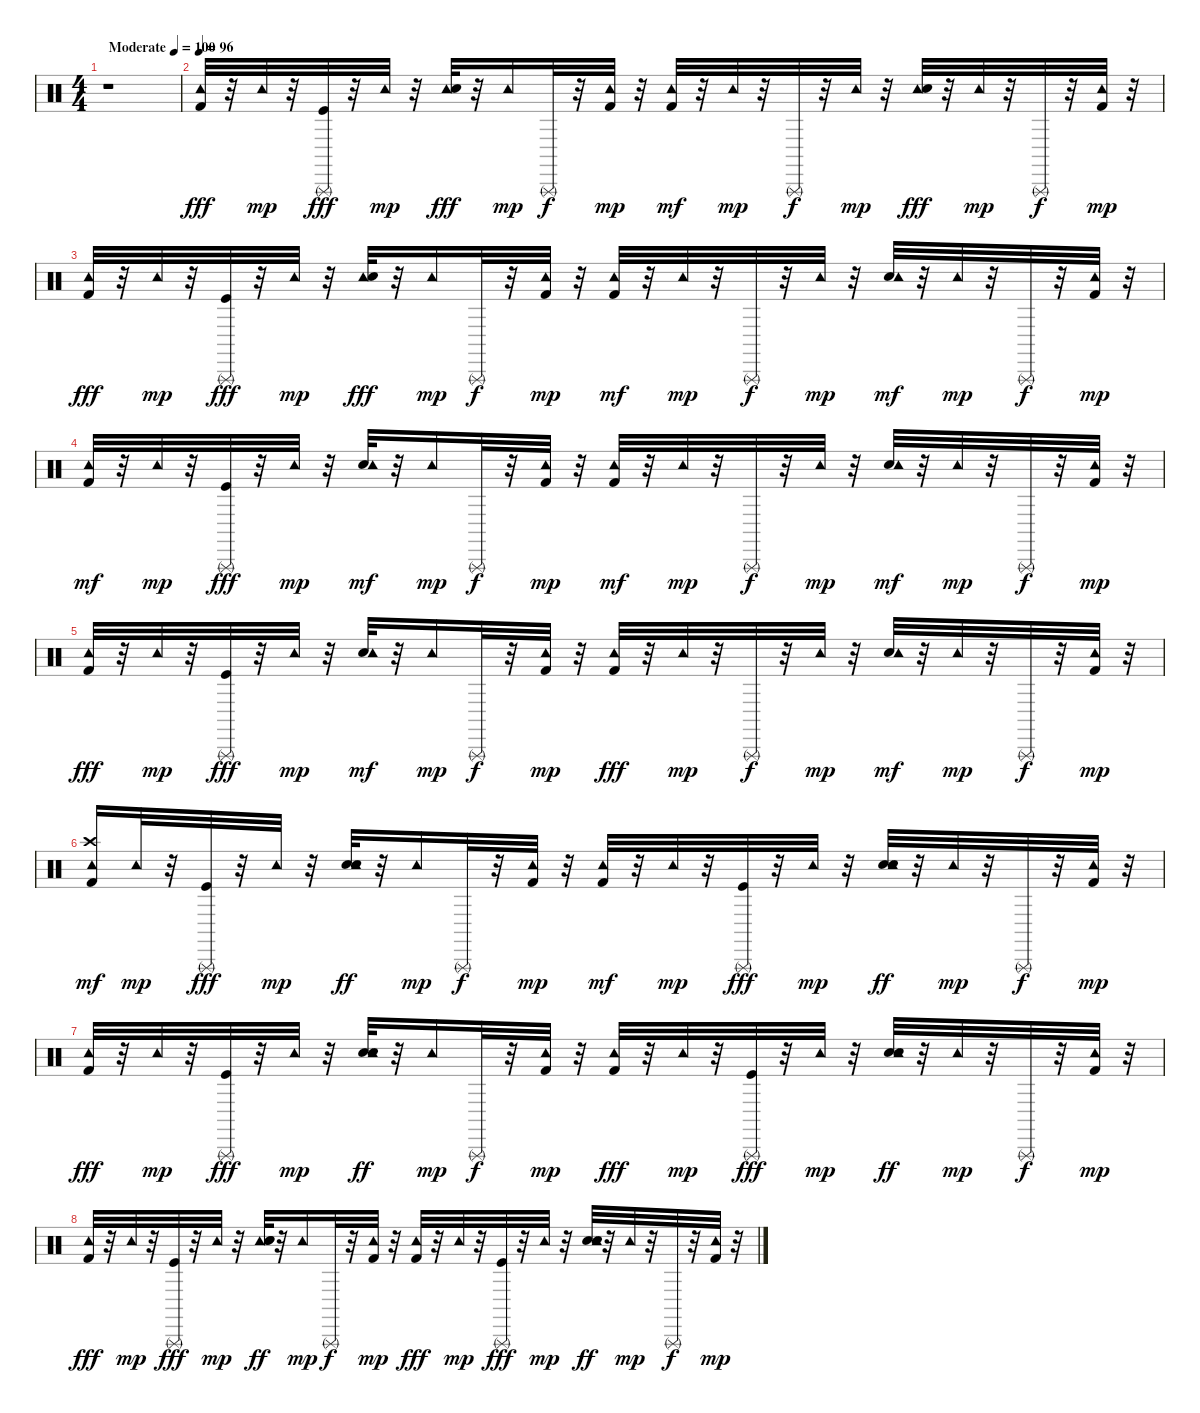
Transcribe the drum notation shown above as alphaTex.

\track "" {instrument percussion}
\staff {score}
\articulation defaults
\ts (4 4)
\tempo (100 "Moderate")
\clef neutral
\ks c
r.1{dy fff} |
\tempo 96
("Tambourine (hit)" "Kick (hit) 2").32{volume 14 balance 8} r.32 "Tambourine (hit)".32{dy mp} r.32 ("Triangle (rnute)" "Kick (hit)").32{dy fff} r.32 "Tambourine (hit)".32{dy mp} r.32 ("Tambourine (hit)" "Hand Clap (hit)").32{dy fff} r.32 "Tambourine (hit)".16{dy mp} "Triangle (rnute)".32{dy f} r.32 ("Tambourine (hit)" "Kick (hit) 2").32{dy mp} r.32 ("Kick (hit) 2" "Tambourine (hit)").32{dy mf} r.32 "Tambourine (hit)".32{dy mp} r.32 "Triangle (rnute)".32{dy f} r.32 "Tambourine (hit)".32{dy mp} r.32 ("Tambourine (hit)" "Hand Clap (hit)").32{dy fff} r.32 "Tambourine (hit)".32{dy mp} r.32 "Triangle (rnute)".32{dy f} r.32 ("Tambourine (hit)" "Kick (hit) 2").32{dy mp} r.32 |
("Tambourine (hit)" "Kick (hit) 2").32{dy fff} r.32 "Tambourine (hit)".32{dy mp} r.32 ("Triangle (rnute)" "Kick (hit)").32{dy fff} r.32 "Tambourine (hit)".32{dy mp} r.32 ("Tambourine (hit)" "Hand Clap (hit)").32{dy fff} r.32 "Tambourine (hit)".16{dy mp} "Triangle (rnute)".32{dy f} r.32 ("Kick (hit) 2" "Tambourine (hit)").32{dy mp} r.32 ("Kick (hit) 2" "Tambourine (hit)").32{dy mf} r.32 "Tambourine (hit)".32{dy mp} r.32 "Triangle (rnute)".32{dy f} r.32 "Tambourine (hit)".32{dy mp} r.32 ("Hand Clap (hit)" "Tambourine (hit)").32{dy mf} r.32 "Tambourine (hit)".32{dy mp} r.32 "Triangle (rnute)".32{dy f} r.32 ("Kick (hit) 2" "Tambourine (hit)").32{dy mp} r.32 |
("Kick (hit) 2" "Tambourine (hit)").32{dy mf} r.32 "Tambourine (hit)".32{dy mp} r.32 ("Kick (hit)" "Triangle (rnute)").32{dy fff} r.32 "Tambourine (hit)".32{dy mp} r.32 ("Hand Clap (hit)" "Tambourine (hit)").32{dy mf} r.32 "Tambourine (hit)".16{dy mp} "Triangle (rnute)".32{dy f} r.32 ("Tambourine (hit)" "Kick (hit) 2").32{dy mp} r.32 ("Kick (hit) 2" "Tambourine (hit)").32{dy mf} r.32 "Tambourine (hit)".32{dy mp} r.32 "Triangle (rnute)".32{dy f} r.32 "Tambourine (hit)".32{dy mp} r.32 ("Hand Clap (hit)" "Tambourine (hit)").32{dy mf} r.32 "Tambourine (hit)".32{dy mp} r.32 "Triangle (rnute)".32{dy f} r.32 ("Tambourine (hit)" "Kick (hit) 2").32{dy mp} r.32 |
("Tambourine (hit)" "Kick (hit) 2").32{dy fff} r.32 "Tambourine (hit)".32{dy mp} r.32 ("Kick (hit)" "Triangle (rnute)").32{dy fff} r.32 "Tambourine (hit)".32{dy mp} r.32 ("Hand Clap (hit)" "Tambourine (hit)").32{dy mf} r.32 "Tambourine (hit)".16{dy mp} "Triangle (rnute)".32{dy f} r.32 ("Tambourine (hit)" "Kick (hit) 2").32{dy mp} r.32 ("Tambourine (hit)" "Kick (hit) 2").32{dy fff} r.32 "Tambourine (hit)".32{dy mp} r.32 "Triangle (rnute)".32{dy f} r.32 "Tambourine (hit)".32{dy mp} r.32 ("Hand Clap (hit)" "Tambourine (hit)").32{dy mf} r.32 "Tambourine (hit)".32{dy mp} r.32 "Triangle (rnute)".32{dy f} r.32 ("Tambourine (hit)" "Kick (hit) 2").32{dy mp} r.32 |
("Tambourine (hit)" "Kick (hit) 2" "Crash high (hit)").16{dy mf} "Tambourine (hit)".32{dy mp} r.32 ("Kick (hit)" "Triangle (rnute)").32{dy fff} r.32 "Tambourine (hit)".32{dy mp} r.32 ("Electric Snare (hit)" "Tambourine (hit)" "Hand Clap (hit)").32{dy ff} r.32 "Tambourine (hit)".16{dy mp} "Triangle (rnute)".32{dy f} r.32 ("Tambourine (hit)" "Kick (hit) 2").32{dy mp} r.32 ("Kick (hit) 2" "Tambourine (hit)").32{dy mf} r.32 "Tambourine (hit)".32{dy mp} r.32 ("Triangle (rnute)" "Kick (hit)").32{dy fff} r.32 "Tambourine (hit)".32{dy mp} r.32 ("Electric Snare (hit)" "Tambourine (hit)" "Hand Clap (hit)").32{dy ff} r.32 "Tambourine (hit)".32{dy mp} r.32 "Triangle (rnute)".32{dy f} r.32 ("Tambourine (hit)" "Kick (hit) 2").32{dy mp} r.32 |
("Tambourine (hit)" "Kick (hit) 2").32{dy fff} r.32 "Tambourine (hit)".32{dy mp} r.32 ("Triangle (rnute)" "Kick (hit)").32{dy fff} r.32 "Tambourine (hit)".32{dy mp} r.32 ("Electric Snare (hit)" "Tambourine (hit)" "Hand Clap (hit)").32{dy ff} r.32 "Tambourine (hit)".16{dy mp} "Triangle (rnute)".32{dy f} r.32 ("Tambourine (hit)" "Kick (hit) 2").32{dy mp} r.32 ("Tambourine (hit)" "Kick (hit) 2").32{dy fff} r.32 "Tambourine (hit)".32{dy mp} r.32 ("Kick (hit)" "Triangle (rnute)").32{dy fff} r.32 "Tambourine (hit)".32{dy mp} r.32 ("Electric Snare (hit)" "Tambourine (hit)" "Hand Clap (hit)").32{dy ff} r.32 "Tambourine (hit)".32{dy mp} r.32 "Triangle (rnute)".32{dy f} r.32 ("Tambourine (hit)" "Kick (hit) 2").32{dy mp} r.32 |
("Tambourine (hit)" "Kick (hit) 2").32{dy fff} r.32 "Tambourine (hit)".32{dy mp} r.32 ("Triangle (rnute)" "Kick (hit)").32{dy fff} r.32 "Tambourine (hit)".32{dy mp} r.32 ("Tambourine (hit)" "Electric Snare (hit)" "Hand Clap (hit)").32{dy ff} r.32 "Tambourine (hit)".16{dy mp} "Triangle (rnute)".32{dy f} r.32 ("Kick (hit) 2" "Tambourine (hit)").32{dy mp} r.32 ("Tambourine (hit)" "Kick (hit) 2").32{dy fff} r.32 "Tambourine (hit)".32{dy mp} r.32 ("Kick (hit)" "Triangle (rnute)").32{dy fff} r.32 "Tambourine (hit)".32{dy mp} r.32 ("Electric Snare (hit)" "Tambourine (hit)" "Hand Clap (hit)").32{dy ff} r.32 "Tambourine (hit)".32{dy mp} r.32 "Triangle (rnute)".32{dy f} r.32 ("Tambourine (hit)" "Kick (hit) 2").32{dy mp} r.32
